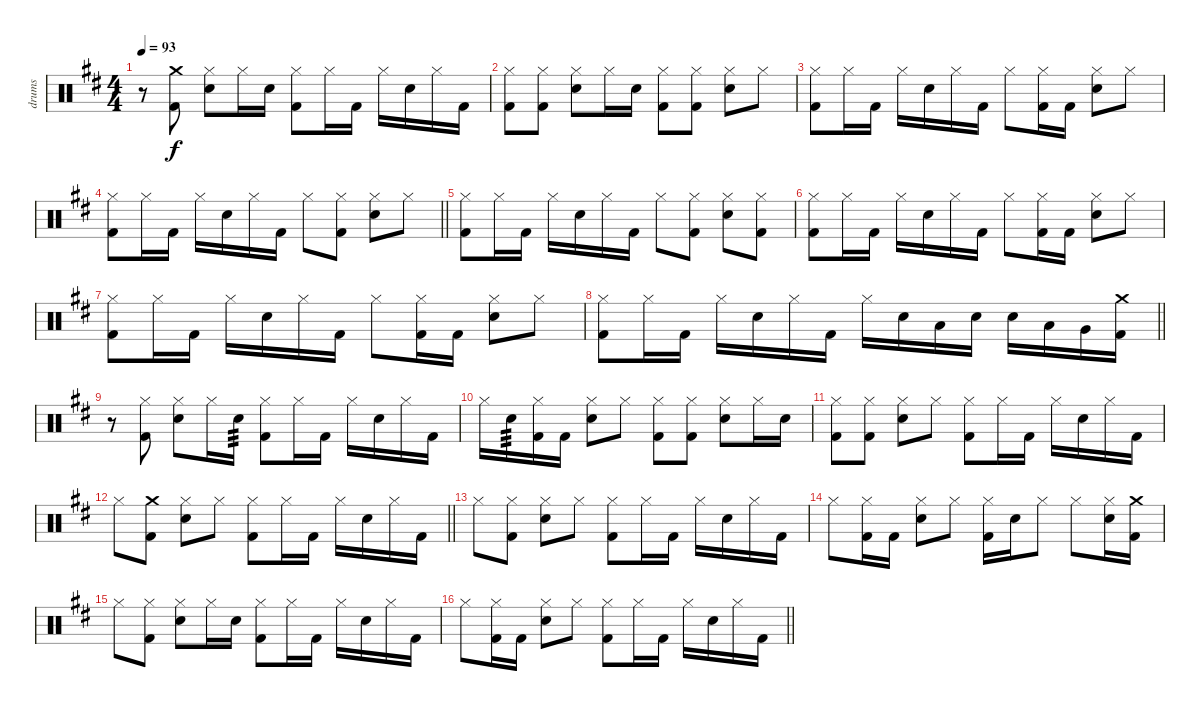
\track ("drums" "drums") {instrument percussion}
\staff {score}
\articulation defaults
\ts (4 4)
\tempo 93
\clef neutral
\ks d
r.8{dy f} ("Crash medium (hit)" "Kick (hit) 2").8 ("Hi-Hat (closed)" "Electric Snare (hit)").8 "Hi-Hat (closed)".16 "Electric Snare (hit)".16 ("Hi-Hat (closed)" "Kick (hit) 2").8 "Hi-Hat (closed)".16 "Kick (hit) 2".16 "Hi-Hat (closed)".16 "Electric Snare (hit)".16 "Hi-Hat (closed)".16 "Kick (hit) 2".16 |
("Hi-Hat (closed)" "Kick (hit) 2").8 ("Hi-Hat (closed)" "Kick (hit) 2").8 ("Hi-Hat (closed)" "Electric Snare (hit)").8 "Hi-Hat (closed)".16 "Electric Snare (hit)".16 ("Hi-Hat (closed)" "Kick (hit) 2").8 ("Hi-Hat (closed)" "Kick (hit) 2").8 ("Hi-Hat (closed)" "Electric Snare (hit)").8 "Hi-Hat (closed)".8 |
("Hi-Hat (closed)" "Kick (hit) 2").8 "Hi-Hat (closed)".16 "Kick (hit) 2".16 "Hi-Hat (closed)".16 "Electric Snare (hit)".16 "Hi-Hat (closed)".16 "Kick (hit) 2".16 "Hi-Hat (closed)".8 ("Hi-Hat (closed)" "Kick (hit) 2").16 "Kick (hit) 2".16 ("Hi-Hat (closed)" "Electric Snare (hit)").8 "Hi-Hat (closed)".8 |
\barLineRight lightlight
("Hi-Hat (closed)" "Kick (hit) 2").8 "Hi-Hat (closed)".16 "Kick (hit) 2".16 "Hi-Hat (closed)".16 "Electric Snare (hit)".16 "Hi-Hat (closed)".16 "Kick (hit) 2".16 "Hi-Hat (closed)".8 ("Hi-Hat (closed)" "Kick (hit) 2").8 ("Hi-Hat (closed)" "Electric Snare (hit)").8 "Hi-Hat (closed)".8 |
("Hi-Hat (closed)" "Kick (hit) 2").8 "Hi-Hat (closed)".16 "Kick (hit) 2".16 "Hi-Hat (closed)".16 "Electric Snare (hit)".16 "Hi-Hat (closed)".16 "Kick (hit) 2".16 "Hi-Hat (closed)".8 ("Hi-Hat (closed)" "Kick (hit) 2").8 ("Hi-Hat (closed)" "Electric Snare (hit)").8 ("Hi-Hat (closed)" "Kick (hit) 2").8 |
("Hi-Hat (closed)" "Kick (hit) 2").8 "Hi-Hat (closed)".16 "Kick (hit) 2".16 "Hi-Hat (closed)".16 "Electric Snare (hit)".16 "Hi-Hat (closed)".16 "Kick (hit) 2".16 "Hi-Hat (closed)".8 ("Hi-Hat (closed)" "Kick (hit) 2").16 "Kick (hit) 2".16 ("Hi-Hat (closed)" "Electric Snare (hit)").8 "Hi-Hat (closed)".8 |
("Hi-Hat (closed)" "Kick (hit) 2").8 "Hi-Hat (closed)".16 "Kick (hit) 2".16 "Hi-Hat (closed)".16 "Electric Snare (hit)".16 "Hi-Hat (closed)".16 "Kick (hit) 2".16 "Hi-Hat (closed)".8 ("Hi-Hat (closed)" "Kick (hit) 2").16 "Kick (hit) 2".16 ("Hi-Hat (closed)" "Electric Snare (hit)").8 "Hi-Hat (closed)".8 |
\barLineRight lightlight
("Hi-Hat (closed)" "Kick (hit) 2").8 "Hi-Hat (closed)".16 "Kick (hit) 2".16 "Hi-Hat (closed)".16 "Electric Snare (hit)".16 "Hi-Hat (closed)".16 "Kick (hit) 2".16 "Hi-Hat (closed)".16 "Electric Snare (hit)".16 "Low Tom (hit)".16 "Electric Snare (hit)".16 "Electric Snare (hit)".16 "Low Tom (hit)".16 "Very Low Tom (hit)".16 ("Crash medium (hit)" "Kick (hit) 2").16 |
r.8 ("Hi-Hat (closed)" "Kick (hit) 2").8 ("Hi-Hat (closed)" "Electric Snare (hit)").8 "Hi-Hat (closed)".16 "Electric Snare (hit)".16{tp 3} ("Hi-Hat (closed)" "Kick (hit) 2").8 "Hi-Hat (closed)".16 "Kick (hit) 2".16 "Hi-Hat (closed)".16 "Electric Snare (hit)".16 "Hi-Hat (closed)".16 "Kick (hit) 2".16 |
"Hi-Hat (closed)".16 "Electric Snare (hit)".16{tp 3} ("Hi-Hat (closed)" "Kick (hit) 2").16 "Kick (hit) 2".16 ("Hi-Hat (closed)" "Electric Snare (hit)").8 "Hi-Hat (closed)".8 ("Hi-Hat (closed)" "Kick (hit) 2").8 ("Hi-Hat (closed)" "Kick (hit) 2").8 ("Hi-Hat (closed)" "Electric Snare (hit)").8 "Hi-Hat (closed)".16 "Electric Snare (hit)".16 |
("Hi-Hat (closed)" "Kick (hit) 2").8 ("Hi-Hat (closed)" "Kick (hit) 2").8 ("Hi-Hat (closed)" "Electric Snare (hit)").8 "Hi-Hat (closed)".8 ("Hi-Hat (closed)" "Kick (hit) 2").8 "Hi-Hat (closed)".16 "Kick (hit) 2".16 "Hi-Hat (closed)".16 "Electric Snare (hit)".16 "Hi-Hat (closed)".16 "Kick (hit) 2".16 |
\barLineRight lightlight "Hi-Hat (closed)".8
("Crash medium (hit)" "Kick (hit) 2").8 ("Hi-Hat (closed)" "Electric Snare (hit)").8 "Hi-Hat (closed)".8 ("Hi-Hat (closed)" "Kick (hit) 2").8 "Hi-Hat (closed)".16 "Kick (hit) 2".16 "Hi-Hat (closed)".16 "Electric Snare (hit)".16 "Hi-Hat (closed)".16 "Kick (hit) 2".16 |
"Hi-Hat (closed)".8 ("Hi-Hat (closed)" "Kick (hit) 2").8 ("Hi-Hat (closed)" "Electric Snare (hit)").8 "Hi-Hat (closed)".8 ("Hi-Hat (closed)" "Kick (hit) 2").8 "Hi-Hat (closed)".16 "Kick (hit) 2".16 "Hi-Hat (closed)".16 "Electric Snare (hit)".16 "Hi-Hat (closed)".16 "Kick (hit) 2".16 |
"Hi-Hat (closed)".8 ("Hi-Hat (closed)" "Kick (hit) 2").16 "Kick (hit) 2".16 ("Hi-Hat (closed)" "Electric Snare (hit)").8 "Hi-Hat (closed)".8 ("Hi-Hat (closed)" "Kick (hit) 2").16 "Electric Snare (hit)".16 "Hi-Hat (closed)".8 "Hi-Hat (closed)".8 ("Hi-Hat (closed)" "Electric Snare (hit)").16 ("Crash medium (hit)" "Kick (hit) 2").16 |
"Hi-Hat (closed)".8 ("Hi-Hat (closed)" "Kick (hit) 2").8 ("Hi-Hat (closed)" "Electric Snare (hit)").8 "Hi-Hat (closed)".16 "Electric Snare (hit)".16 ("Hi-Hat (closed)" "Kick (hit) 2").8 "Hi-Hat (closed)".16 "Kick (hit) 2".16 "Hi-Hat (closed)".16 "Electric Snare (hit)".16 "Hi-Hat (closed)".16 "Kick (hit) 2".16 |
\barLineRight lightlight "Hi-Hat (closed)".8
("Hi-Hat (closed)" "Kick (hit) 2").16 "Kick (hit) 2".16 ("Hi-Hat (closed)" "Electric Snare (hit)").8 "Hi-Hat (closed)".8 ("Hi-Hat (closed)" "Kick (hit) 2").8 "Hi-Hat (closed)".16 "Kick (hit) 2".16 "Hi-Hat (closed)".16 "Electric Snare (hit)".16 "Hi-Hat (closed)".16 "Kick (hit) 2".16
